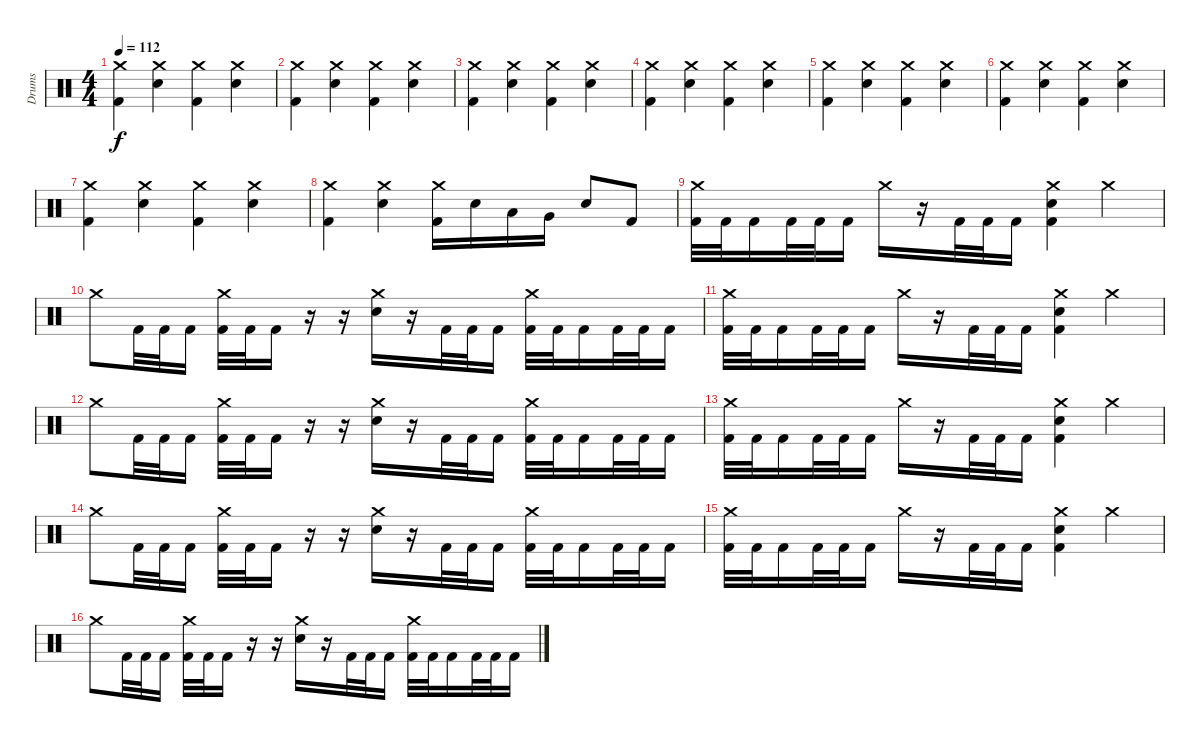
\track ("Drums" "Drums") {instrument percussion}
\staff {score}
\articulation defaults
\ts (4 4)
\tempo 112
\clef neutral
\ks c
("Crash medium (hit)" "Kick (hit) 2").4{dy f} ("Crash medium (hit)" "Electric Snare (hit)").4 ("Crash medium (hit)" "Kick (hit) 2").4 ("Crash medium (hit)" "Electric Snare (hit)").4 |
("Crash medium (hit)" "Kick (hit) 2").4 ("Crash medium (hit)" "Electric Snare (hit)").4 ("Crash medium (hit)" "Kick (hit) 2").4 ("Crash medium (hit)" "Electric Snare (hit)").4 |
("Crash medium (hit)" "Kick (hit) 2").4 ("Crash medium (hit)" "Electric Snare (hit)").4 ("Crash medium (hit)" "Kick (hit) 2").4 ("Crash medium (hit)" "Electric Snare (hit)").4 |
("Crash medium (hit)" "Kick (hit) 2").4 ("Crash medium (hit)" "Electric Snare (hit)").4 ("Crash medium (hit)" "Kick (hit) 2").4 ("Crash medium (hit)" "Electric Snare (hit)").4 |
("Crash medium (hit)" "Kick (hit) 2").4 ("Crash medium (hit)" "Electric Snare (hit)").4 ("Crash medium (hit)" "Kick (hit) 2").4 ("Crash medium (hit)" "Electric Snare (hit)").4 |
("Crash medium (hit)" "Kick (hit) 2").4 ("Crash medium (hit)" "Electric Snare (hit)").4 ("Crash medium (hit)" "Kick (hit) 2").4 ("Crash medium (hit)" "Electric Snare (hit)").4 |
("Crash medium (hit)" "Kick (hit) 2").4 ("Crash medium (hit)" "Electric Snare (hit)").4 ("Crash medium (hit)" "Kick (hit) 2").4 ("Crash medium (hit)" "Electric Snare (hit)").4 |
("Crash medium (hit)" "Kick (hit) 2").4 ("Crash medium (hit)" "Electric Snare (hit)").4 ("Crash medium (hit)" "Kick (hit) 2").16 "Electric Snare (hit)".16 "Low Tom (hit)".16 "Very Low Tom (hit)".16 "Electric Snare (hit)".8 "Kick (hit) 2".8 |
("Crash medium (hit)" "Kick (hit) 2").32 "Kick (hit) 2".32 "Kick (hit) 2".16 "Kick (hit) 2".32 "Kick (hit) 2".32 "Kick (hit) 2".16 "Crash medium (hit)".16 r.16 "Kick (hit) 2".32 "Kick (hit) 2".32 "Kick (hit) 2".16 ("Crash medium (hit)" "Electric Snare (hit)" "Kick (hit) 2").4 "Crash medium (hit)".4 |
"Crash medium (hit)".8 "Kick (hit) 2".32 "Kick (hit) 2".32 "Kick (hit) 2".16 ("Crash medium (hit)" "Kick (hit) 2").32 "Kick (hit) 2".32 "Kick (hit) 2".16 r.16 r.16 ("Crash medium (hit)" "Electric Snare (hit)").16 r.16 "Kick (hit) 2".32 "Kick (hit) 2".32 "Kick (hit) 2".16 ("Crash medium (hit)" "Kick (hit) 2").32 "Kick (hit) 2".32 "Kick (hit) 2".16 "Kick (hit) 2".32 "Kick (hit) 2".32 "Kick (hit) 2".16 |
("Crash medium (hit)" "Kick (hit) 2").32 "Kick (hit) 2".32 "Kick (hit) 2".16 "Kick (hit) 2".32 "Kick (hit) 2".32 "Kick (hit) 2".16 "Crash medium (hit)".16 r.16 "Kick (hit) 2".32 "Kick (hit) 2".32 "Kick (hit) 2".16 ("Crash medium (hit)" "Electric Snare (hit)" "Kick (hit) 2").4 "Crash medium (hit)".4 |
"Crash medium (hit)".8 "Kick (hit) 2".32 "Kick (hit) 2".32 "Kick (hit) 2".16 ("Crash medium (hit)" "Kick (hit) 2").32 "Kick (hit) 2".32 "Kick (hit) 2".16 r.16 r.16 ("Crash medium (hit)" "Electric Snare (hit)").16 r.16 "Kick (hit) 2".32 "Kick (hit) 2".32 "Kick (hit) 2".16 ("Crash medium (hit)" "Kick (hit) 2").32 "Kick (hit) 2".32 "Kick (hit) 2".16 "Kick (hit) 2".32 "Kick (hit) 2".32 "Kick (hit) 2".16 |
("Crash medium (hit)" "Kick (hit) 2").32 "Kick (hit) 2".32 "Kick (hit) 2".16 "Kick (hit) 2".32 "Kick (hit) 2".32 "Kick (hit) 2".16 "Crash medium (hit)".16 r.16 "Kick (hit) 2".32 "Kick (hit) 2".32 "Kick (hit) 2".16 ("Crash medium (hit)" "Electric Snare (hit)" "Kick (hit) 2").4 "Crash medium (hit)".4 |
"Crash medium (hit)".8 "Kick (hit) 2".32 "Kick (hit) 2".32 "Kick (hit) 2".16 ("Crash medium (hit)" "Kick (hit) 2").32 "Kick (hit) 2".32 "Kick (hit) 2".16 r.16 r.16 ("Crash medium (hit)" "Electric Snare (hit)").16 r.16 "Kick (hit) 2".32 "Kick (hit) 2".32 "Kick (hit) 2".16 ("Crash medium (hit)" "Kick (hit) 2").32 "Kick (hit) 2".32 "Kick (hit) 2".16 "Kick (hit) 2".32 "Kick (hit) 2".32 "Kick (hit) 2".16 |
("Crash medium (hit)" "Kick (hit) 2").32 "Kick (hit) 2".32 "Kick (hit) 2".16 "Kick (hit) 2".32 "Kick (hit) 2".32 "Kick (hit) 2".16 "Crash medium (hit)".16 r.16 "Kick (hit) 2".32 "Kick (hit) 2".32 "Kick (hit) 2".16 ("Crash medium (hit)" "Electric Snare (hit)" "Kick (hit) 2").4 "Crash medium (hit)".4 |
"Crash medium (hit)".8 "Kick (hit) 2".32 "Kick (hit) 2".32 "Kick (hit) 2".16 ("Crash medium (hit)" "Kick (hit) 2").32 "Kick (hit) 2".32 "Kick (hit) 2".16 r.16 r.16 ("Crash medium (hit)" "Electric Snare (hit)").16 r.16 "Kick (hit) 2".32 "Kick (hit) 2".32 "Kick (hit) 2".16 ("Crash medium (hit)" "Kick (hit) 2").32 "Kick (hit) 2".32 "Kick (hit) 2".16 "Kick (hit) 2".32 "Kick (hit) 2".32 "Kick (hit) 2".16
